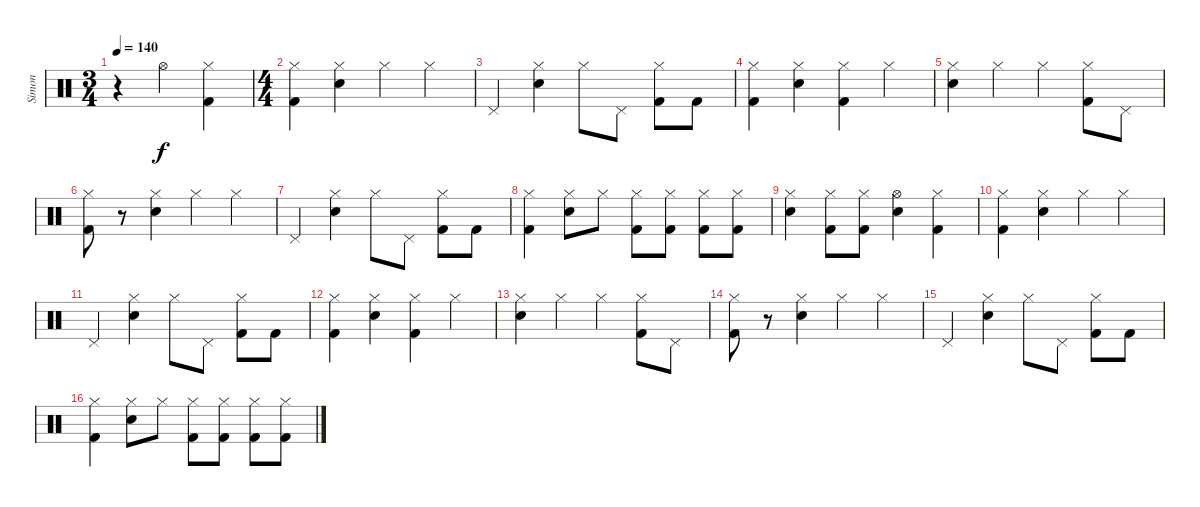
\track ("Simon" "Simon") {instrument percussion}
\staff {score}
\articulation defaults
\ts (3 4)
\tempo 140
\clef neutral
\ks c
r.4{dy f} "Hi-Hat (open)".4 ("Kick (hit) 2" "Hi-Hat (closed)").4 |
\ts (4 4)
("Kick (hit) 2" "Hi-Hat (closed)").4 ("Electric Snare (hit)" "Hi-Hat (closed)").4 "Hi-Hat (closed)".4 "Hi-Hat (closed)".4 |
"Pedal Hi-Hat (hit)".4 ("Electric Snare (hit)" "Hi-Hat (closed)").4 "Hi-Hat (closed)".8 "Pedal Hi-Hat (hit)".8 ("Kick (hit) 2" "Hi-Hat (closed)").8 "Kick (hit) 2".8 |
("Kick (hit) 2" "Hi-Hat (closed)").4 ("Electric Snare (hit)" "Hi-Hat (closed)").4 ("Kick (hit) 2" "Hi-Hat (closed)").4 "Hi-Hat (closed)".4 |
("Electric Snare (hit)" "Hi-Hat (closed)").4 "Hi-Hat (closed)".4 "Hi-Hat (closed)".4 ("Kick (hit) 2" "Hi-Hat (closed)").8 "Pedal Hi-Hat (hit)".8 |
("Kick (hit) 2" "Hi-Hat (closed)").8 r.8 ("Electric Snare (hit)" "Hi-Hat (closed)").4 "Hi-Hat (closed)".4 "Hi-Hat (closed)".4 |
"Pedal Hi-Hat (hit)".4 ("Electric Snare (hit)" "Hi-Hat (closed)").4 "Hi-Hat (closed)".8 "Pedal Hi-Hat (hit)".8 ("Kick (hit) 2" "Hi-Hat (closed)").8 "Kick (hit) 2".8 |
("Kick (hit) 2" "Hi-Hat (closed)").4 ("Electric Snare (hit)" "Hi-Hat (closed)").8 "Hi-Hat (closed)".8 ("Kick (hit) 2" "Hi-Hat (closed)").8 ("Kick (hit) 2" "Hi-Hat (closed)").8 ("Kick (hit) 2" "Hi-Hat (closed)").8 ("Kick (hit) 2" "Hi-Hat (closed)").8 |
("Electric Snare (hit)" "Hi-Hat (closed)").4 ("Kick (hit) 2" "Hi-Hat (closed)").8 ("Kick (hit) 2" "Hi-Hat (closed)").8 ("Electric Snare (hit)" "Hi-Hat (open)").4 ("Kick (hit) 2" "Hi-Hat (closed)").4 |
("Kick (hit) 2" "Hi-Hat (closed)").4 ("Electric Snare (hit)" "Hi-Hat (closed)").4 "Hi-Hat (closed)".4 "Hi-Hat (closed)".4 |
"Pedal Hi-Hat (hit)".4 ("Electric Snare (hit)" "Hi-Hat (closed)").4 "Hi-Hat (closed)".8 "Pedal Hi-Hat (hit)".8 ("Kick (hit) 2" "Hi-Hat (closed)").8 "Kick (hit) 2".8 |
("Kick (hit) 2" "Hi-Hat (closed)").4 ("Electric Snare (hit)" "Hi-Hat (closed)").4 ("Kick (hit) 2" "Hi-Hat (closed)").4 "Hi-Hat (closed)".4 |
("Electric Snare (hit)" "Hi-Hat (closed)").4 "Hi-Hat (closed)".4 "Hi-Hat (closed)".4 ("Kick (hit) 2" "Hi-Hat (closed)").8 "Pedal Hi-Hat (hit)".8 |
("Kick (hit) 2" "Hi-Hat (closed)").8 r.8 ("Electric Snare (hit)" "Hi-Hat (closed)").4 "Hi-Hat (closed)".4 "Hi-Hat (closed)".4 |
"Pedal Hi-Hat (hit)".4 ("Electric Snare (hit)" "Hi-Hat (closed)").4 "Hi-Hat (closed)".8 "Pedal Hi-Hat (hit)".8 ("Kick (hit) 2" "Hi-Hat (closed)").8 "Kick (hit) 2".8 |
("Kick (hit) 2" "Hi-Hat (closed)").4 ("Electric Snare (hit)" "Hi-Hat (closed)").8 "Hi-Hat (closed)".8 ("Kick (hit) 2" "Hi-Hat (closed)").8 ("Kick (hit) 2" "Hi-Hat (closed)").8 ("Kick (hit) 2" "Hi-Hat (closed)").8 ("Kick (hit) 2" "Hi-Hat (closed)").8
